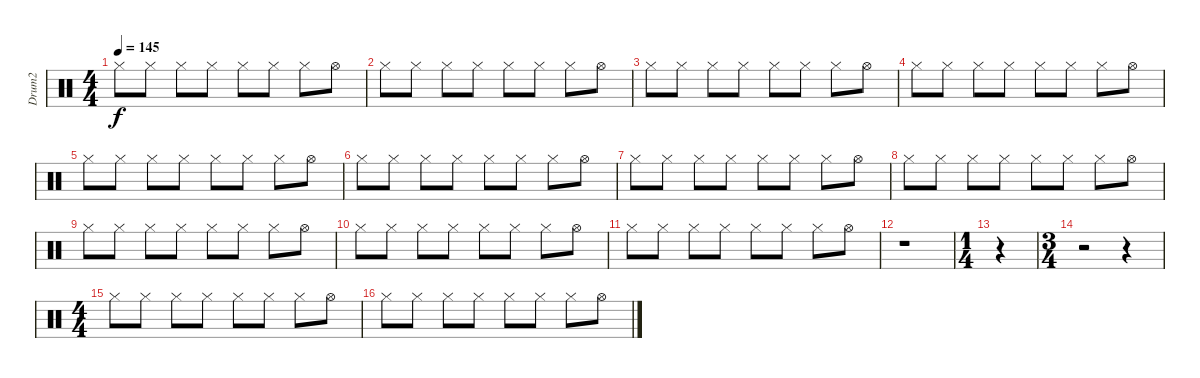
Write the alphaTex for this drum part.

\track ("Drum2" "Drum2") {instrument percussion}
\staff {score}
\articulation defaults
\ts (4 4)
\tempo 145
\clef neutral
\ks c "Hi-Hat (closed)".8{dy f} "Hi-Hat (closed)".8 "Hi-Hat (closed)".8 "Hi-Hat (closed)".8 "Hi-Hat (closed)".8 "Hi-Hat (closed)".8 "Hi-Hat (closed)".8 "Hi-Hat (open)".8
|
"Hi-Hat (closed)".8 "Hi-Hat (closed)".8 "Hi-Hat (closed)".8 "Hi-Hat (closed)".8 "Hi-Hat (closed)".8 "Hi-Hat (closed)".8 "Hi-Hat (closed)".8 "Hi-Hat (open)".8 |
"Hi-Hat (closed)".8 "Hi-Hat (closed)".8 "Hi-Hat (closed)".8 "Hi-Hat (closed)".8 "Hi-Hat (closed)".8 "Hi-Hat (closed)".8 "Hi-Hat (closed)".8 "Hi-Hat (open)".8 |
"Hi-Hat (closed)".8 "Hi-Hat (closed)".8 "Hi-Hat (closed)".8 "Hi-Hat (closed)".8 "Hi-Hat (closed)".8 "Hi-Hat (closed)".8 "Hi-Hat (closed)".8 "Hi-Hat (open)".8 |
"Hi-Hat (closed)".8 "Hi-Hat (closed)".8 "Hi-Hat (closed)".8 "Hi-Hat (closed)".8 "Hi-Hat (closed)".8 "Hi-Hat (closed)".8 "Hi-Hat (closed)".8 "Hi-Hat (open)".8 |
"Hi-Hat (closed)".8 "Hi-Hat (closed)".8 "Hi-Hat (closed)".8 "Hi-Hat (closed)".8 "Hi-Hat (closed)".8 "Hi-Hat (closed)".8 "Hi-Hat (closed)".8 "Hi-Hat (open)".8 |
"Hi-Hat (closed)".8 "Hi-Hat (closed)".8 "Hi-Hat (closed)".8 "Hi-Hat (closed)".8 "Hi-Hat (closed)".8 "Hi-Hat (closed)".8 "Hi-Hat (closed)".8 "Hi-Hat (open)".8 |
"Hi-Hat (closed)".8 "Hi-Hat (closed)".8 "Hi-Hat (closed)".8 "Hi-Hat (closed)".8 "Hi-Hat (closed)".8 "Hi-Hat (closed)".8 "Hi-Hat (closed)".8 "Hi-Hat (open)".8 |
"Hi-Hat (closed)".8 "Hi-Hat (closed)".8 "Hi-Hat (closed)".8 "Hi-Hat (closed)".8 "Hi-Hat (closed)".8 "Hi-Hat (closed)".8 "Hi-Hat (closed)".8 "Hi-Hat (open)".8 |
"Hi-Hat (closed)".8 "Hi-Hat (closed)".8 "Hi-Hat (closed)".8 "Hi-Hat (closed)".8 "Hi-Hat (closed)".8 "Hi-Hat (closed)".8 "Hi-Hat (closed)".8 "Hi-Hat (open)".8 |
"Hi-Hat (closed)".8 "Hi-Hat (closed)".8 "Hi-Hat (closed)".8 "Hi-Hat (closed)".8 "Hi-Hat (closed)".8 "Hi-Hat (closed)".8 "Hi-Hat (closed)".8 "Hi-Hat (open)".8 |
r.1 |
\ts (1 4)
r.4 |
\ts (3 4)
r.2 r.4 |
\ts (4 4)
"Hi-Hat (closed)".8 "Hi-Hat (closed)".8 "Hi-Hat (closed)".8 "Hi-Hat (closed)".8 "Hi-Hat (closed)".8 "Hi-Hat (closed)".8 "Hi-Hat (closed)".8 "Hi-Hat (open)".8 |
"Hi-Hat (closed)".8 "Hi-Hat (closed)".8 "Hi-Hat (closed)".8 "Hi-Hat (closed)".8 "Hi-Hat (closed)".8 "Hi-Hat (closed)".8 "Hi-Hat (closed)".8 "Hi-Hat (open)".8
